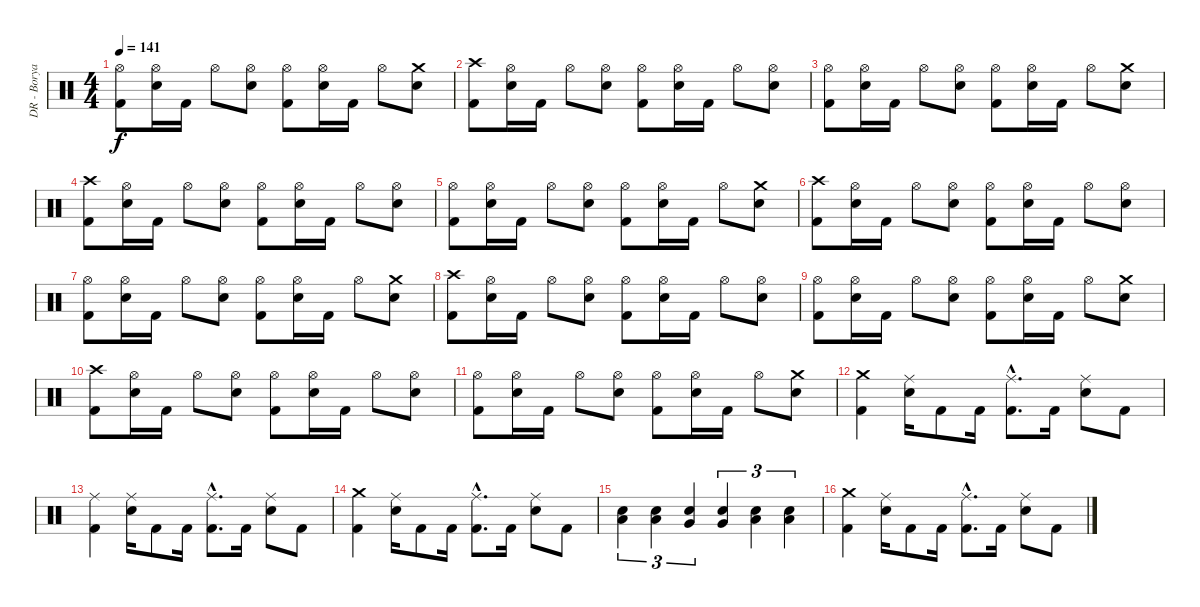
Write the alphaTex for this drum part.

\track ("DR - Borya" "DR - Borya") {instrument percussion}
\staff {score}
\articulation defaults
\ts (4 4)
\tempo 141
\clef neutral
\ks c
("Kick (hit) 2" "Hi-Hat (open)").8{dy f} ("Electric Snare (hit)" "Hi-Hat (open)").16 "Kick (hit) 2".16 "Hi-Hat (open)".8 ("Electric Snare (hit)" "Hi-Hat (open)").8 ("Kick (hit) 2" "Hi-Hat (open)").8 ("Electric Snare (hit)" "Hi-Hat (open)").16 "Kick (hit) 2".16 "Hi-Hat (open)".8 ("Electric Snare (hit)" "Crash medium (hit)").8 |
("Kick (hit) 2" "Crash high (hit)").8 ("Electric Snare (hit)" "Hi-Hat (open)").16 "Kick (hit) 2".16 "Hi-Hat (open)".8 ("Electric Snare (hit)" "Hi-Hat (open)").8 ("Kick (hit) 2" "Hi-Hat (open)").8 ("Electric Snare (hit)" "Hi-Hat (open)").16 "Kick (hit) 2".16 "Hi-Hat (open)".8 ("Electric Snare (hit)" "Hi-Hat (open)").8 |
("Kick (hit) 2" "Hi-Hat (open)").8 ("Electric Snare (hit)" "Hi-Hat (open)").16 "Kick (hit) 2".16 "Hi-Hat (open)".8 ("Electric Snare (hit)" "Hi-Hat (open)").8 ("Kick (hit) 2" "Hi-Hat (open)").8 ("Electric Snare (hit)" "Hi-Hat (open)").16 "Kick (hit) 2".16 "Hi-Hat (open)".8 ("Electric Snare (hit)" "Crash medium (hit)").8 |
("Kick (hit) 2" "Crash high (hit)").8 ("Electric Snare (hit)" "Hi-Hat (open)").16 "Kick (hit) 2".16 "Hi-Hat (open)".8 ("Electric Snare (hit)" "Hi-Hat (open)").8 ("Kick (hit) 2" "Hi-Hat (open)").8 ("Electric Snare (hit)" "Hi-Hat (open)").16 "Kick (hit) 2".16 "Hi-Hat (open)".8 ("Electric Snare (hit)" "Hi-Hat (open)").8 |
("Kick (hit) 2" "Hi-Hat (open)").8 ("Electric Snare (hit)" "Hi-Hat (open)").16 "Kick (hit) 2".16 "Hi-Hat (open)".8 ("Electric Snare (hit)" "Hi-Hat (open)").8 ("Kick (hit) 2" "Hi-Hat (open)").8 ("Electric Snare (hit)" "Hi-Hat (open)").16 "Kick (hit) 2".16 "Hi-Hat (open)".8 ("Electric Snare (hit)" "Crash medium (hit)").8 |
("Kick (hit) 2" "Crash high (hit)").8 ("Electric Snare (hit)" "Hi-Hat (open)").16 "Kick (hit) 2".16 "Hi-Hat (open)".8 ("Electric Snare (hit)" "Hi-Hat (open)").8 ("Kick (hit) 2" "Hi-Hat (open)").8 ("Electric Snare (hit)" "Hi-Hat (open)").16 "Kick (hit) 2".16 "Hi-Hat (open)".8 ("Electric Snare (hit)" "Hi-Hat (open)").8 |
("Kick (hit) 2" "Hi-Hat (open)").8 ("Electric Snare (hit)" "Hi-Hat (open)").16 "Kick (hit) 2".16 "Hi-Hat (open)".8 ("Electric Snare (hit)" "Hi-Hat (open)").8 ("Kick (hit) 2" "Hi-Hat (open)").8 ("Electric Snare (hit)" "Hi-Hat (open)").16 "Kick (hit) 2".16 "Hi-Hat (open)".8 ("Electric Snare (hit)" "Crash medium (hit)").8 |
("Kick (hit) 2" "Crash high (hit)").8 ("Electric Snare (hit)" "Hi-Hat (open)").16 "Kick (hit) 2".16 "Hi-Hat (open)".8 ("Electric Snare (hit)" "Hi-Hat (open)").8 ("Kick (hit) 2" "Hi-Hat (open)").8 ("Electric Snare (hit)" "Hi-Hat (open)").16 "Kick (hit) 2".16 "Hi-Hat (open)".8 ("Electric Snare (hit)" "Hi-Hat (open)").8 |
("Kick (hit) 2" "Hi-Hat (open)").8 ("Electric Snare (hit)" "Hi-Hat (open)").16 "Kick (hit) 2".16 "Hi-Hat (open)".8 ("Electric Snare (hit)" "Hi-Hat (open)").8 ("Kick (hit) 2" "Hi-Hat (open)").8 ("Electric Snare (hit)" "Hi-Hat (open)").16 "Kick (hit) 2".16 "Hi-Hat (open)".8 ("Electric Snare (hit)" "Crash medium (hit)").8 |
("Kick (hit) 2" "Crash high (hit)").8 ("Electric Snare (hit)" "Hi-Hat (open)").16 "Kick (hit) 2".16 "Hi-Hat (open)".8 ("Electric Snare (hit)" "Hi-Hat (open)").8 ("Kick (hit) 2" "Hi-Hat (open)").8 ("Electric Snare (hit)" "Hi-Hat (open)").16 "Kick (hit) 2".16 "Hi-Hat (open)".8 ("Electric Snare (hit)" "Hi-Hat (open)").8 |
("Kick (hit) 2" "Hi-Hat (open)").8 ("Electric Snare (hit)" "Hi-Hat (open)").16 "Kick (hit) 2".16 "Hi-Hat (open)".8 ("Electric Snare (hit)" "Hi-Hat (open)").8 ("Kick (hit) 2" "Hi-Hat (open)").8 ("Electric Snare (hit)" "Hi-Hat (open)").16 "Kick (hit) 2".16 "Hi-Hat (open)".8 ("Electric Snare (hit)" "Crash medium (hit)").8 |
("Kick (hit) 2" "Crash medium (hit)").4 ("Electric Snare (hit)" "Ride (middle)").16 "Kick (hit) 2".8 "Kick (hit) 2".16 ("Kick (hit) 2"{hac} "Ride (middle)"{hac}).8{d} "Kick (hit) 2".16 ("Electric Snare (hit)" "Ride (middle)").8 "Kick (hit) 2".8 |
("Kick (hit) 2" "Ride (middle)").4 ("Electric Snare (hit)" "Ride (middle)").16 "Kick (hit) 2".8 "Kick (hit) 2".16 ("Kick (hit) 2"{hac} "Ride (middle)"{hac}).8{d} "Kick (hit) 2".16 ("Electric Snare (hit)" "Ride (middle)").8 "Kick (hit) 2".8 |
("Kick (hit) 2" "Crash medium (hit)").4 ("Electric Snare (hit)" "Ride (middle)").16 "Kick (hit) 2".8 "Kick (hit) 2".16 ("Kick (hit) 2"{hac} "Ride (middle)"{hac}).8{d} "Kick (hit) 2".16 ("Electric Snare (hit)" "Ride (middle)").8 "Kick (hit) 2".8 |
("Electric Snare (hit)" "Low Tom (hit)").4{tu (3 2)} ("Electric Snare (hit)" "Low Tom (hit)").4{tu (3 2)} ("Electric Snare (hit)" "Very Low Tom (hit)").4{tu (3 2)} ("Electric Snare (hit)" "Very Low Tom (hit)").4{tu (3 2)} ("Electric Snare (hit)" "Low Floor Tom (hit)").4{tu (3 2)} ("Electric Snare (hit)" "Low Floor Tom (hit)").4{tu (3 2)} |
("Kick (hit) 2" "Crash medium (hit)").4 ("Electric Snare (hit)" "Ride (middle)").16 "Kick (hit) 2".8 "Kick (hit) 2".16 ("Kick (hit) 2"{hac} "Ride (middle)"{hac}).8{d} "Kick (hit) 2".16 ("Electric Snare (hit)" "Ride (middle)").8 "Kick (hit) 2".8
